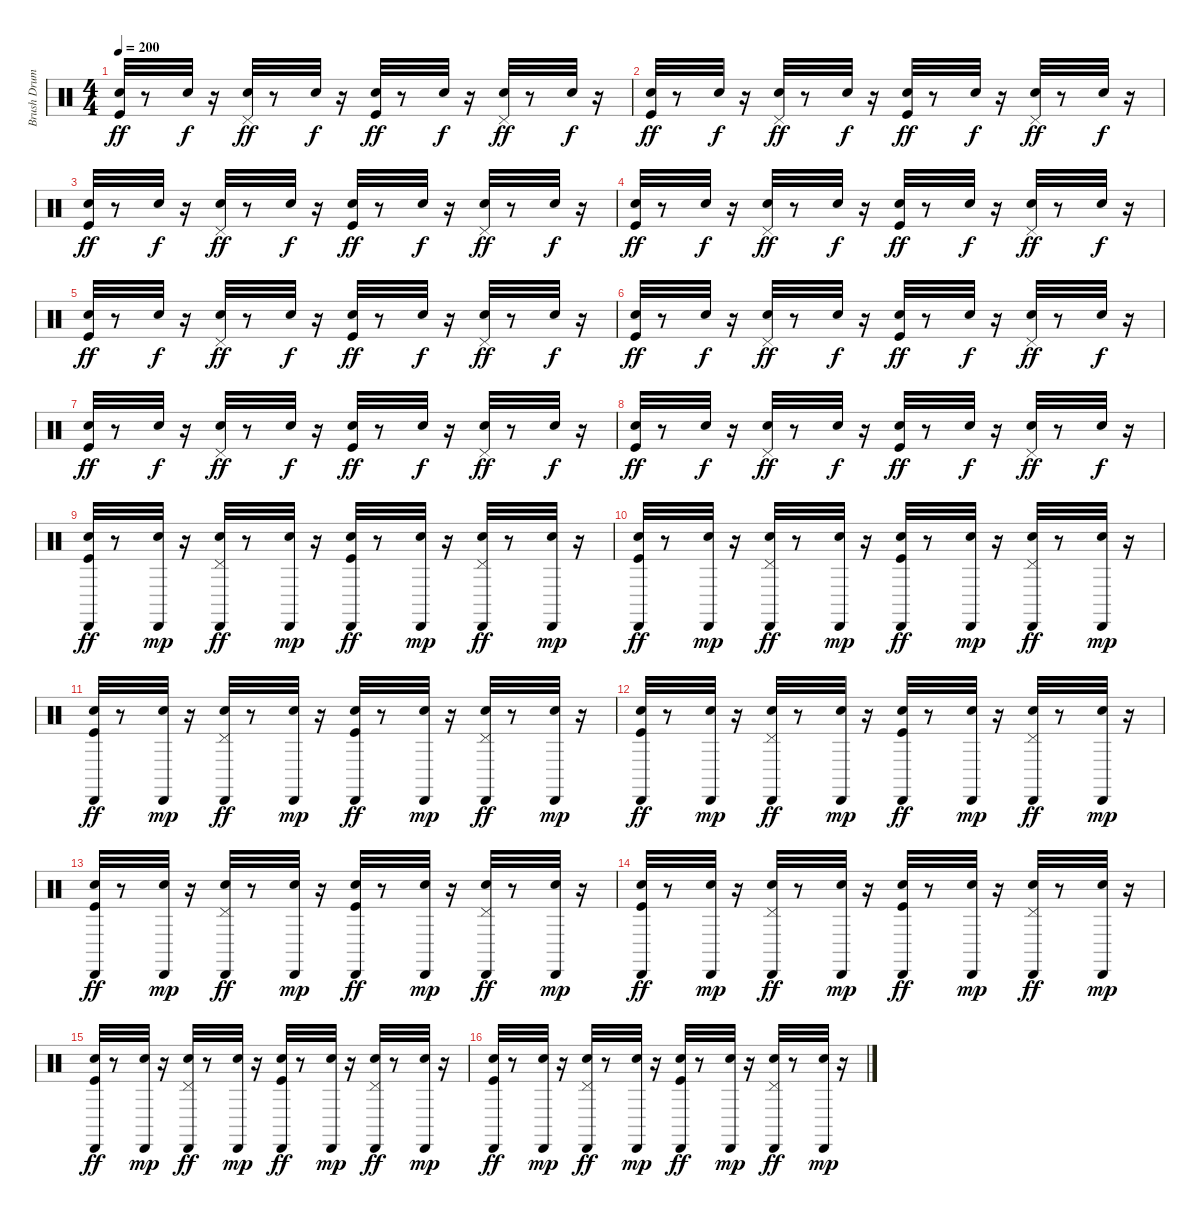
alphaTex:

\track ("Brush Drums" "Brush Drum") {instrument percussion}
\staff {score}
\articulation defaults
\ts (4 4)
\tempo 200
\clef neutral
\ks c
("Snare (hit) 2" "Kick (hit)").32{dy ff} r.8 "Snare (hit) 2".32{dy f} r.16 ("Hand Clap (hit)" "Pedal Hi-Hat (hit)").32{dy ff} r.8 "Snare (hit) 2".32{dy f} r.16 ("Snare (hit) 2" "Kick (hit)").32{dy ff} r.8 "Snare (hit) 2".32{dy f} r.16 ("Hand Clap (hit)" "Pedal Hi-Hat (hit)").32{dy ff} r.8 "Snare (hit) 2".32{dy f} r.16 |
("Kick (hit)" "Snare (hit) 2").32{dy ff} r.8 "Snare (hit) 2".32{dy f} r.16 ("Hand Clap (hit)" "Pedal Hi-Hat (hit)").32{dy ff} r.8 "Snare (hit) 2".32{dy f} r.16 ("Kick (hit)" "Snare (hit) 2").32{dy ff} r.8 "Snare (hit) 2".32{dy f} r.16 ("Pedal Hi-Hat (hit)" "Hand Clap (hit)").32{dy ff} r.8 "Snare (hit) 2".32{dy f} r.16 |
("Kick (hit)" "Snare (hit) 2").32{dy ff} r.8 "Snare (hit) 2".32{dy f} r.16 ("Pedal Hi-Hat (hit)" "Hand Clap (hit)").32{dy ff} r.8 "Snare (hit) 2".32{dy f} r.16 ("Kick (hit)" "Snare (hit) 2").32{dy ff} r.8 "Snare (hit) 2".32{dy f} r.16 ("Hand Clap (hit)" "Pedal Hi-Hat (hit)").32{dy ff} r.8 "Snare (hit) 2".32{dy f} r.16 |
("Kick (hit)" "Snare (hit) 2").32{dy ff} r.8 "Snare (hit) 2".32{dy f} r.16 ("Pedal Hi-Hat (hit)" "Hand Clap (hit)").32{dy ff} r.8 "Snare (hit) 2".32{dy f} r.16 ("Snare (hit) 2" "Kick (hit)").32{dy ff} r.8 "Snare (hit) 2".32{dy f} r.16 ("Pedal Hi-Hat (hit)" "Hand Clap (hit)").32{dy ff} r.8 "Snare (hit) 2".32{dy f} r.16 |
("Kick (hit)" "Snare (hit) 2").32{dy ff} r.8 "Snare (hit) 2".32{dy f} r.16 ("Pedal Hi-Hat (hit)" "Hand Clap (hit)").32{dy ff} r.8 "Snare (hit) 2".32{dy f} r.16 ("Kick (hit)" "Snare (hit) 2").32{dy ff} r.8 "Snare (hit) 2".32{dy f} r.16 ("Pedal Hi-Hat (hit)" "Hand Clap (hit)").32{dy ff} r.8 "Snare (hit) 2".32{dy f} r.16 |
("Kick (hit)" "Snare (hit) 2").32{dy ff} r.8 "Snare (hit) 2".32{dy f} r.16 ("Pedal Hi-Hat (hit)" "Hand Clap (hit)").32{dy ff} r.8 "Snare (hit) 2".32{dy f} r.16 ("Kick (hit)" "Snare (hit) 2").32{dy ff} r.8 "Snare (hit) 2".32{dy f} r.16 ("Pedal Hi-Hat (hit)" "Hand Clap (hit)").32{dy ff} r.8 "Snare (hit) 2".32{dy f} r.16 |
("Kick (hit)" "Snare (hit) 2").32{dy ff} r.8 "Snare (hit) 2".32{dy f} r.16 ("Hand Clap (hit)" "Pedal Hi-Hat (hit)").32{dy ff} r.8 "Snare (hit) 2".32{dy f} r.16 ("Snare (hit) 2" "Kick (hit)").32{dy ff} r.8 "Snare (hit) 2".32{dy f} r.16 ("Hand Clap (hit)" "Pedal Hi-Hat (hit)").32{dy ff} r.8 "Snare (hit) 2".32{dy f} r.16 |
("Kick (hit)" "Snare (hit) 2").32{dy ff} r.8 "Snare (hit) 2".32{dy f} r.16 ("Hand Clap (hit)" "Pedal Hi-Hat (hit)").32{dy ff} r.8 "Snare (hit) 2".32{dy f} r.16 ("Kick (hit)" "Snare (hit) 2").32{dy ff} r.8 "Hand Clap (hit)".32{dy f} r.16 ("Hand Clap (hit)" "Pedal Hi-Hat (hit)").32{dy ff} r.8 "Snare (hit) 2".32{dy f} r.16 |
("Cabasa (hit)" "Kick (hit)" "Snare (hit) 2").32{dy ff} r.8 ("Cabasa (hit)" "Snare (hit) 2").32{dy mp} r.16 ("Cabasa (hit)" "Hand Clap (hit)" "Pedal Hi-Hat (hit)").32{dy ff} r.8 ("Cabasa (hit)" "Snare (hit) 2").32{dy mp} r.16 ("Cabasa (hit)" "Snare (hit) 2" "Kick (hit)").32{dy ff} r.8 ("Cabasa (hit)" "Snare (hit) 2").32{dy mp} r.16 ("Cabasa (hit)" "Pedal Hi-Hat (hit)" "Hand Clap (hit)").32{dy ff} r.8 ("Cabasa (hit)" "Snare (hit) 2").32{dy mp} r.16 |
("Cabasa (hit)" "Kick (hit)" "Snare (hit) 2").32{dy ff} r.8 ("Cabasa (hit)" "Snare (hit) 2").32{dy mp} r.16 ("Cabasa (hit)" "Pedal Hi-Hat (hit)" "Hand Clap (hit)").32{dy ff} r.8 ("Cabasa (hit)" "Snare (hit) 2").32{dy mp} r.16 ("Cabasa (hit)" "Kick (hit)" "Snare (hit) 2").32{dy ff} r.8 ("Cabasa (hit)" "Snare (hit) 2").32{dy mp} r.16 ("Cabasa (hit)" "Pedal Hi-Hat (hit)" "Hand Clap (hit)").32{dy ff} r.8 ("Cabasa (hit)" "Snare (hit) 2").32{dy mp} r.16 |
("Cabasa (hit)" "Kick (hit)" "Snare (hit) 2").32{dy ff} r.8 ("Cabasa (hit)" "Snare (hit) 2").32{dy mp} r.16 ("Cabasa (hit)" "Hand Clap (hit)" "Pedal Hi-Hat (hit)").32{dy ff} r.8 ("Cabasa (hit)" "Snare (hit) 2").32{dy mp} r.16 ("Cabasa (hit)" "Snare (hit) 2" "Kick (hit)").32{dy ff} r.8 ("Cabasa (hit)" "Snare (hit) 2").32{dy mp} r.16 ("Cabasa (hit)" "Hand Clap (hit)" "Pedal Hi-Hat (hit)").32{dy ff} r.8 ("Cabasa (hit)" "Snare (hit) 2").32{dy mp} r.16 |
("Cabasa (hit)" "Snare (hit) 2" "Kick (hit)").32{dy ff} r.8 ("Cabasa (hit)" "Snare (hit) 2").32{dy mp} r.16 ("Cabasa (hit)" "Hand Clap (hit)" "Pedal Hi-Hat (hit)").32{dy ff} r.8 ("Cabasa (hit)" "Snare (hit) 2").32{dy mp} r.16 ("Cabasa (hit)" "Snare (hit) 2" "Kick (hit)").32{dy ff} r.8 ("Cabasa (hit)" "Snare (hit) 2").32{dy mp} r.16 ("Cabasa (hit)" "Pedal Hi-Hat (hit)" "Hand Clap (hit)").32{dy ff} r.8 ("Cabasa (hit)" "Snare (hit) 2").32{dy mp} r.16 |
("Cabasa (hit)" "Snare (hit) 2" "Kick (hit)").32{dy ff} r.8 ("Cabasa (hit)" "Snare (hit) 2").32{dy mp} r.16 ("Cabasa (hit)" "Hand Clap (hit)" "Pedal Hi-Hat (hit)").32{dy ff} r.8 ("Cabasa (hit)" "Snare (hit) 2").32{dy mp} r.16 ("Cabasa (hit)" "Kick (hit)" "Snare (hit) 2").32{dy ff} r.8 ("Cabasa (hit)" "Snare (hit) 2").32{dy mp} r.16 ("Cabasa (hit)" "Hand Clap (hit)" "Pedal Hi-Hat (hit)").32{dy ff} r.8 ("Cabasa (hit)" "Snare (hit) 2").32{dy mp} r.16 |
("Cabasa (hit)" "Kick (hit)" "Snare (hit) 2").32{dy ff} r.8 ("Cabasa (hit)" "Snare (hit) 2").32{dy mp} r.16 ("Cabasa (hit)" "Hand Clap (hit)" "Pedal Hi-Hat (hit)").32{dy ff} r.8 ("Cabasa (hit)" "Snare (hit) 2").32{dy mp} r.16 ("Cabasa (hit)" "Kick (hit)" "Snare (hit) 2").32{dy ff} r.8 ("Cabasa (hit)" "Hand Clap (hit)").32{dy mp} r.16 ("Cabasa (hit)" "Pedal Hi-Hat (hit)" "Hand Clap (hit)").32{dy ff} r.8 ("Cabasa (hit)" "Snare (hit) 2").32{dy mp} r.16 |
("Cabasa (hit)" "Snare (hit) 2" "Kick (hit)").32{dy ff} r.8 ("Cabasa (hit)" "Snare (hit) 2").32{dy mp} r.16 ("Cabasa (hit)" "Hand Clap (hit)" "Pedal Hi-Hat (hit)").32{dy ff} r.8 ("Cabasa (hit)" "Snare (hit) 2").32{dy mp} r.16 ("Cabasa (hit)" "Snare (hit) 2" "Kick (hit)").32{dy ff} r.8 ("Cabasa (hit)" "Snare (hit) 2").32{dy mp} r.16 ("Cabasa (hit)" "Hand Clap (hit)" "Pedal Hi-Hat (hit)").32{dy ff} r.8 ("Cabasa (hit)" "Snare (hit) 2").32{dy mp} r.16 |
("Cabasa (hit)" "Snare (hit) 2" "Kick (hit)").32{dy ff} r.8 ("Cabasa (hit)" "Snare (hit) 2").32{dy mp} r.16 ("Cabasa (hit)" "Pedal Hi-Hat (hit)" "Hand Clap (hit)").32{dy ff} r.8 ("Cabasa (hit)" "Snare (hit) 2").32{dy mp} r.16 ("Cabasa (hit)" "Snare (hit) 2" "Kick (hit)").32{dy ff} r.8 ("Cabasa (hit)" "Hand Clap (hit)").32{dy mp} r.16 ("Cabasa (hit)" "Hand Clap (hit)" "Pedal Hi-Hat (hit)").32{dy ff} r.8 ("Cabasa (hit)" "Snare (hit) 2").32{dy mp} r.16
